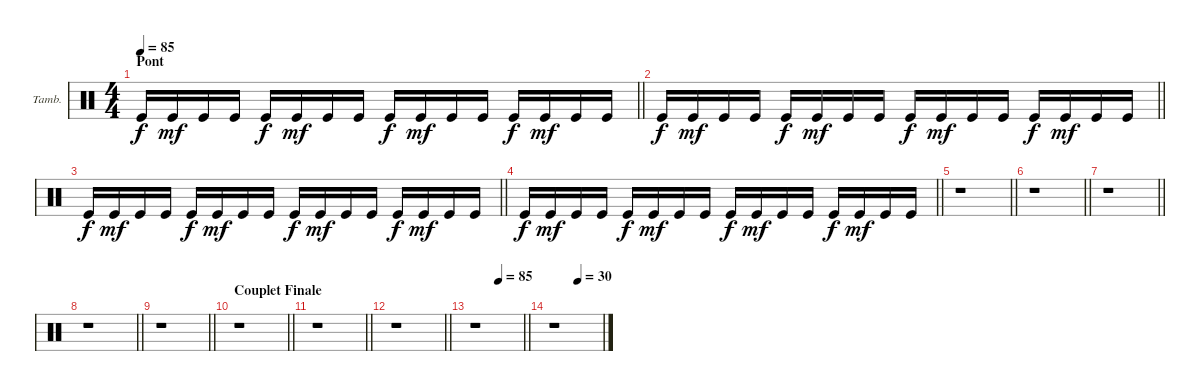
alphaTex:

\bracketExtendMode groupsimilarinstruments
\firstSystemTrackNameOrientation horizontal
\otherSystemsTrackNameOrientation horizontal
\chordDiagramsInScore
\track ("Tambourine" "Tamb.") {instrument percussion}
\staff {score}
\articulation defaults
\ts (4 4)
\section ("" "Pont")
\tempo 85
\clef neutral
\barLineRight lightlight
\ks c "Kick (hit)".16{dy f} "Kick (hit)".16{dy mf} "Kick (hit)".16 "Kick (hit)".16 "Kick (hit)".16{dy f} "Kick (hit)".16{dy mf} "Kick (hit)".16 "Kick (hit)".16 "Kick (hit)".16{dy f} "Kick (hit)".16{dy mf} "Kick (hit)".16 "Kick (hit)".16 "Kick (hit)".16{dy f} "Kick (hit)".16{dy mf} "Kick (hit)".16 "Kick (hit)".16
|
\barLineRight lightlight "Kick (hit)".16{dy f} "Kick (hit)".16{dy mf} "Kick (hit)".16 "Kick (hit)".16 "Kick (hit)".16{dy f} "Kick (hit)".16{dy mf} "Kick (hit)".16 "Kick (hit)".16 "Kick (hit)".16{dy f} "Kick (hit)".16{dy mf} "Kick (hit)".16 "Kick (hit)".16 "Kick (hit)".16{dy f} "Kick (hit)".16{dy mf} "Kick (hit)".16 "Kick (hit)".16
|
\barLineRight lightlight "Kick (hit)".16{dy f} "Kick (hit)".16{dy mf} "Kick (hit)".16 "Kick (hit)".16 "Kick (hit)".16{dy f} "Kick (hit)".16{dy mf} "Kick (hit)".16 "Kick (hit)".16 "Kick (hit)".16{dy f} "Kick (hit)".16{dy mf} "Kick (hit)".16 "Kick (hit)".16 "Kick (hit)".16{dy f} "Kick (hit)".16{dy mf} "Kick (hit)".16 "Kick (hit)".16
|
\barLineRight lightlight "Kick (hit)".16{dy f} "Kick (hit)".16{dy mf} "Kick (hit)".16 "Kick (hit)".16 "Kick (hit)".16{dy f} "Kick (hit)".16{dy mf} "Kick (hit)".16 "Kick (hit)".16 "Kick (hit)".16{dy f} "Kick (hit)".16{dy mf} "Kick (hit)".16 "Kick (hit)".16 "Kick (hit)".16{dy f} "Kick (hit)".16{dy mf} "Kick (hit)".16 "Kick (hit)".16
|
\barLineRight lightlight
r.1 |
\barLineRight lightlight
r.1 |
\barLineRight lightlight
r.1 |
\barLineRight lightlight
r.1 |
\barLineRight lightlight
r.1 |
\section ("" "Couplet Finale")
\barLineRight lightlight
r.1 |
\barLineRight lightlight
r.1 |
\barLineRight lightlight
r.1 |
\tempo (85 0.5)
\barLineRight lightlight
r.1 |
\tempo (30 0.5)
r.1
